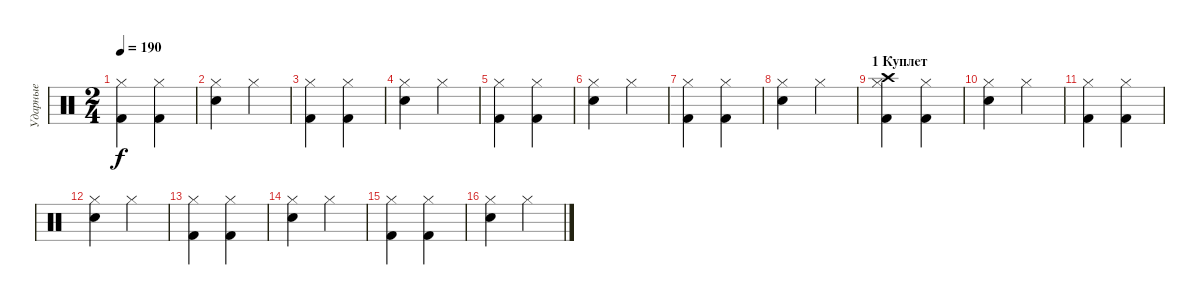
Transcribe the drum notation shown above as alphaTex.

\track ("Ударные" "Ударные") {instrument percussion}
\staff {score}
\articulation defaults
\ts (2 4)
\tempo 190
\clef neutral
\ks c
("Hi-Hat (closed)" "Kick (hit) 2").4{dy f} ("Hi-Hat (closed)" "Kick (hit) 2").4 |
("Hi-Hat (closed)" "Snare (hit) 2").4 "Hi-Hat (closed)".4 |
("Hi-Hat (closed)" "Kick (hit) 2").4 ("Hi-Hat (closed)" "Kick (hit) 2").4 |
("Hi-Hat (closed)" "Snare (hit) 2").4 "Hi-Hat (closed)".4 |
("Hi-Hat (closed)" "Kick (hit) 2").4 ("Hi-Hat (closed)" "Kick (hit) 2").4 |
("Hi-Hat (closed)" "Snare (hit) 2").4 "Hi-Hat (closed)".4 |
("Hi-Hat (closed)" "Kick (hit) 2").4 ("Hi-Hat (closed)" "Kick (hit) 2").4 |
("Hi-Hat (closed)" "Snare (hit) 2").4 "Hi-Hat (closed)".4 |
\section ("" "1 Куплет")
("Hi-Hat (closed)" "Kick (hit) 2" "Crash high (hit)").4 ("Hi-Hat (closed)" "Kick (hit) 2").4 |
("Hi-Hat (closed)" "Snare (hit) 2").4 "Hi-Hat (closed)".4 |
("Hi-Hat (closed)" "Kick (hit) 2").4 ("Hi-Hat (closed)" "Kick (hit) 2").4 |
("Hi-Hat (closed)" "Snare (hit) 2").4 "Hi-Hat (closed)".4 |
("Hi-Hat (closed)" "Kick (hit) 2").4 ("Hi-Hat (closed)" "Kick (hit) 2").4 |
("Hi-Hat (closed)" "Snare (hit) 2").4 "Hi-Hat (closed)".4 |
("Hi-Hat (closed)" "Kick (hit) 2").4 ("Hi-Hat (closed)" "Kick (hit) 2").4 |
("Hi-Hat (closed)" "Snare (hit) 2").4 "Hi-Hat (closed)".4
